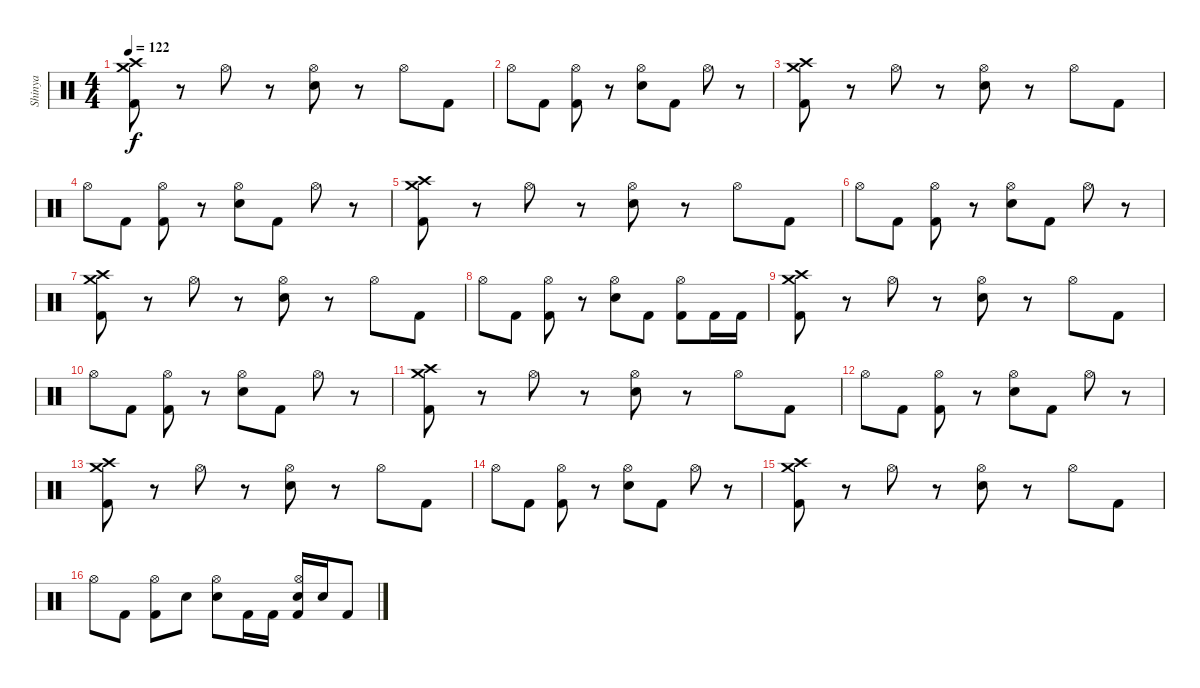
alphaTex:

\track ("Shinya" "Shinya") {instrument percussion}
\staff {score}
\articulation defaults
\ts (4 4)
\tempo 122
\clef neutral
\ks c
("Crash high (hit)" "Crash medium (hit)" "Kick (hit) 2").8{dy f} r.8 "Hi-Hat (open)".8 r.8 ("Hi-Hat (open)" "Electric Snare (hit)").8 r.8 "Hi-Hat (open)".8 "Kick (hit) 2".8 |
"Hi-Hat (open)".8 "Kick (hit) 2".8 ("Hi-Hat (open)" "Kick (hit) 2").8 r.8 ("Hi-Hat (open)" "Electric Snare (hit)").8 "Kick (hit) 2".8 "Hi-Hat (open)".8 r.8 |
("Crash high (hit)" "Crash medium (hit)" "Kick (hit) 2").8 r.8 "Hi-Hat (open)".8 r.8 ("Hi-Hat (open)" "Electric Snare (hit)").8 r.8 "Hi-Hat (open)".8 "Kick (hit) 2".8 |
"Hi-Hat (open)".8 "Kick (hit) 2".8 ("Hi-Hat (open)" "Kick (hit) 2").8 r.8 ("Hi-Hat (open)" "Electric Snare (hit)").8 "Kick (hit) 2".8 "Hi-Hat (open)".8 r.8 |
("Crash high (hit)" "Crash medium (hit)" "Kick (hit) 2").8 r.8 "Hi-Hat (open)".8 r.8 ("Hi-Hat (open)" "Electric Snare (hit)").8 r.8 "Hi-Hat (open)".8 "Kick (hit) 2".8 |
"Hi-Hat (open)".8 "Kick (hit) 2".8 ("Hi-Hat (open)" "Kick (hit) 2").8 r.8 ("Hi-Hat (open)" "Electric Snare (hit)").8 "Kick (hit) 2".8 "Hi-Hat (open)".8 r.8 |
("Crash high (hit)" "Crash medium (hit)" "Kick (hit) 2").8 r.8 "Hi-Hat (open)".8 r.8 ("Hi-Hat (open)" "Electric Snare (hit)").8 r.8 "Hi-Hat (open)".8 "Kick (hit) 2".8 |
"Hi-Hat (open)".8 "Kick (hit) 2".8 ("Hi-Hat (open)" "Kick (hit) 2").8 r.8 ("Hi-Hat (open)" "Electric Snare (hit)").8 "Kick (hit) 2".8 ("Hi-Hat (open)" "Kick (hit) 2").8 "Kick (hit) 2".16 "Kick (hit) 2".16 |
("Crash high (hit)" "Crash medium (hit)" "Kick (hit) 2").8 r.8 "Hi-Hat (open)".8 r.8 ("Hi-Hat (open)" "Electric Snare (hit)").8 r.8 "Hi-Hat (open)".8 "Kick (hit) 2".8 |
"Hi-Hat (open)".8 "Kick (hit) 2".8 ("Hi-Hat (open)" "Kick (hit) 2").8 r.8 ("Hi-Hat (open)" "Electric Snare (hit)").8 "Kick (hit) 2".8 "Hi-Hat (open)".8 r.8 |
("Crash high (hit)" "Crash medium (hit)" "Kick (hit) 2").8 r.8 "Hi-Hat (open)".8 r.8 ("Hi-Hat (open)" "Electric Snare (hit)").8 r.8 "Hi-Hat (open)".8 "Kick (hit) 2".8 |
"Hi-Hat (open)".8 "Kick (hit) 2".8 ("Hi-Hat (open)" "Kick (hit) 2").8 r.8 ("Hi-Hat (open)" "Electric Snare (hit)").8 "Kick (hit) 2".8 "Hi-Hat (open)".8 r.8 |
("Crash high (hit)" "Crash medium (hit)" "Kick (hit) 2").8 r.8 "Hi-Hat (open)".8 r.8 ("Hi-Hat (open)" "Electric Snare (hit)").8 r.8 "Hi-Hat (open)".8 "Kick (hit) 2".8 |
"Hi-Hat (open)".8 "Kick (hit) 2".8 ("Hi-Hat (open)" "Kick (hit) 2").8 r.8 ("Hi-Hat (open)" "Electric Snare (hit)").8 "Kick (hit) 2".8 "Hi-Hat (open)".8 r.8 |
("Crash high (hit)" "Crash medium (hit)" "Kick (hit) 2").8 r.8 "Hi-Hat (open)".8 r.8 ("Hi-Hat (open)" "Electric Snare (hit)").8 r.8 "Hi-Hat (open)".8 "Kick (hit) 2".8 |
"Hi-Hat (open)".8 "Kick (hit) 2".8 ("Hi-Hat (open)" "Kick (hit) 2").8 "Electric Snare (hit)".8 ("Hi-Hat (open)" "Electric Snare (hit)").8 "Kick (hit) 2".16 "Kick (hit) 2".16 ("Hi-Hat (open)" "Electric Snare (hit)" "Kick (hit) 2").16 "Electric Snare (hit)".16 "Kick (hit) 2".8
